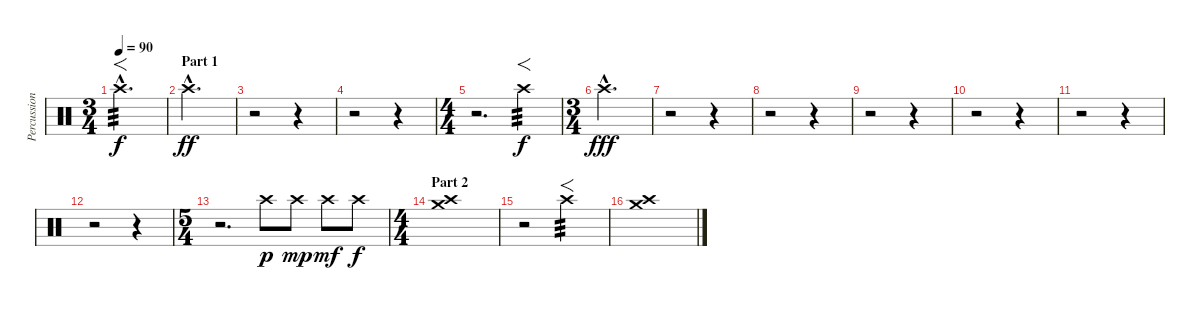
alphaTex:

\track ("Percussions" "Percussion") {instrument percussion}
\staff {score}
\articulation defaults
\ts (3 4)
\tempo 90
\clef neutral
\ks c "Crash high (hit)"{hac}.2{f d tp 3 dy f}
|
\section ("" "Part 1")
"Crash high (hit)"{hac}.2{d dy ff} |
r.2 r.4 |
r.2 r.4 |
\ts (4 4)
r.2{d} "Crash high (hit)".4{f tp 3 dy f} |
\ts (3 4)
"Crash high (hit)"{hac}.2{d dy fff} |
r.2 r.4 |
r.2 r.4 |
r.2 r.4 |
r.2 r.4 |
r.2 r.4 |
r.2 r.4 |
\ts (5 4)
r.2{d} "Crash high (hit)".8{dy p} "Crash high (hit)".8{dy mp} "Crash high (hit)".8{dy mf} "Crash high (hit)".8{dy f} |
\ts (4 4)
\section ("" "Part 2")
("Crash high (hit)" "Crash medium (hit)").1 |
r.2 "Crash high (hit)".2{f tp 3} |
("Crash high (hit)" "Crash medium (hit)").1
